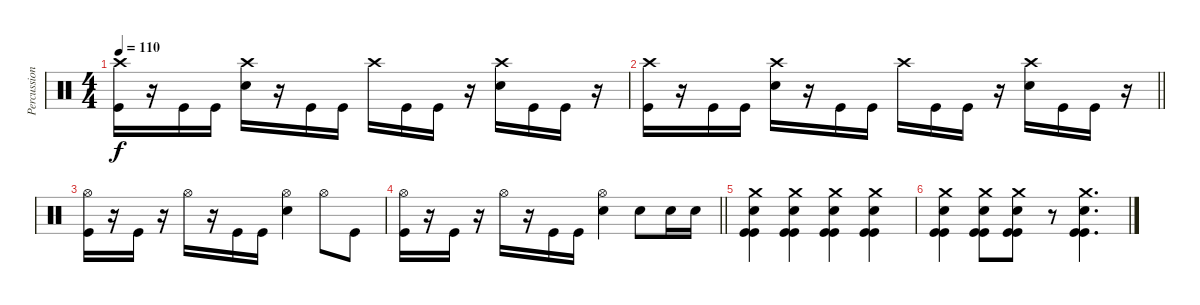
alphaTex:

\track ("Percussion" "Percussion") {instrument percussion}
\staff {score}
\articulation defaults
\ts (4 4)
\tempo 110
\clef neutral
\ks c
("Crash high (hit)" "Kick (hit)").16{dy f} r.16 "Kick (hit)".16 "Kick (hit)".16 ("Crash high (hit)" "Snare (hit) 2").16 r.16 "Kick (hit)".16 "Kick (hit)".16 "Crash high (hit)".16 "Kick (hit)".16 "Kick (hit)".16 r.16 ("Crash high (hit)" "Snare (hit) 2").16 "Kick (hit)".16 "Kick (hit)".16 r.16 |
\barLineRight lightlight
("Crash high (hit)" "Kick (hit)").16 r.16 "Kick (hit)".16 "Kick (hit)".16 ("Crash high (hit)" "Snare (hit) 2").16 r.16 "Kick (hit)".16 "Kick (hit)".16 "Crash high (hit)".16 "Kick (hit)".16 "Kick (hit)".16 r.16 ("Crash high (hit)" "Snare (hit) 2").16 "Kick (hit)".16 "Kick (hit)".16 r.16 |
("Hi-Hat (open)" "Kick (hit)").16 r.16 "Kick (hit)".16 r.16 "Hi-Hat (open)".16 r.16 "Kick (hit)".16 "Kick (hit)".16 ("Hi-Hat (open)" "Snare (hit) 2").4 "Hi-Hat (open)".8 "Kick (hit)".8 |
\barLineRight lightlight
("Hi-Hat (open)" "Kick (hit)").16 r.16 "Kick (hit)".16 r.16 "Hi-Hat (open)".16 r.16 "Kick (hit)".16 "Kick (hit)".16 ("Hi-Hat (open)" "Snare (hit) 2").4 "Snare (hit) 2".8 "Snare (hit) 2".16 "Snare (hit) 2".16 |
("Crash medium (hit)" "Snare (hit) 2" "Kick (hit)" "Kick (hit)").4 ("Crash medium (hit)" "Snare (hit) 2" "Kick (hit)" "Kick (hit)").4 ("Crash medium (hit)" "Snare (hit) 2" "Kick (hit)" "Kick (hit)").4 ("Crash medium (hit)" "Snare (hit) 2" "Kick (hit)" "Kick (hit)").4 |
("Crash medium (hit)" "Snare (hit) 2" "Kick (hit)" "Kick (hit)").4 ("Crash medium (hit)" "Snare (hit) 2" "Kick (hit)" "Kick (hit)").8 ("Crash medium (hit)" "Snare (hit) 2" "Kick (hit)" "Kick (hit)").8 r.8 ("Crash medium (hit)" "Snare (hit) 2" "Kick (hit)" "Kick (hit)").4{d}
